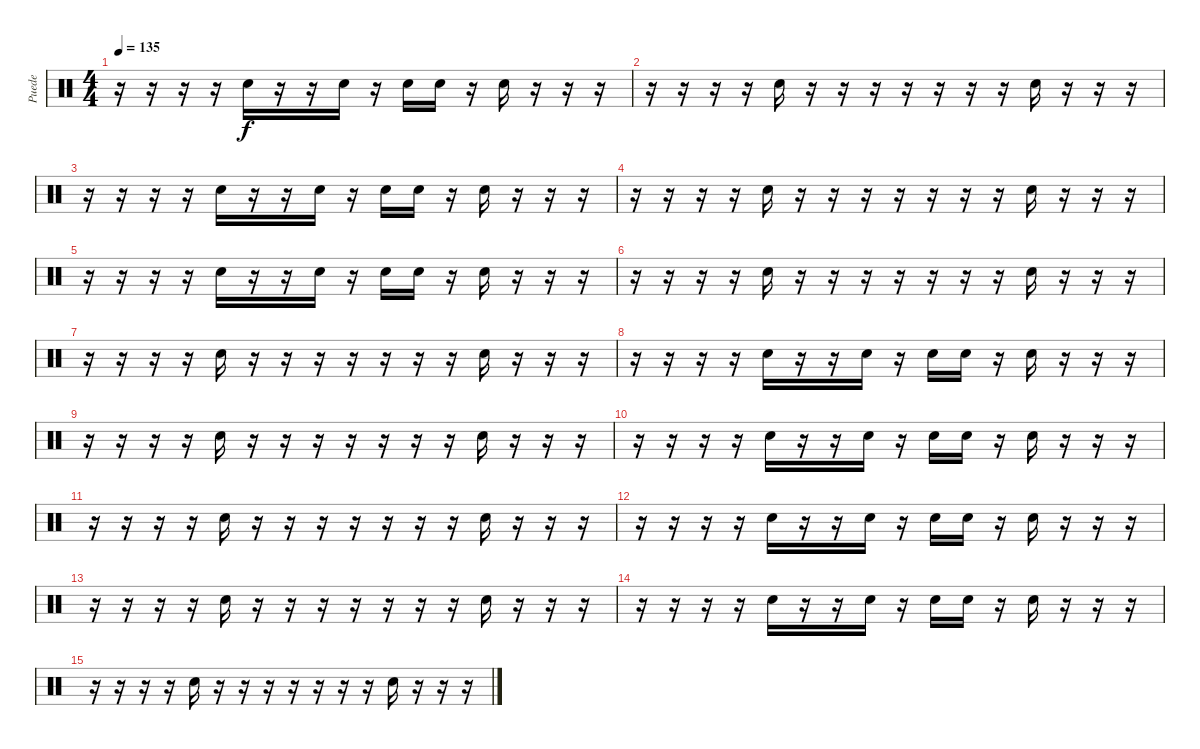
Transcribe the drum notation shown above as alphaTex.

\track ("Puede" "Puede") {instrument percussion}
\staff {score}
\articulation defaults
\ts (4 4)
\tempo 135
\clef neutral
\ks c
r.16{dy f} r.16 r.16 r.16 "Hand Clap (hit)".16 r.16 r.16 "Hand Clap (hit)".16 r.16 "Hand Clap (hit)".16 "Hand Clap (hit)".16 r.16 "Hand Clap (hit)".16 r.16 r.16 r.16 |
r.16 r.16 r.16 r.16 "Hand Clap (hit)".16 r.16 r.16 r.16 r.16 r.16 r.16 r.16 "Hand Clap (hit)".16 r.16 r.16 r.16 |
r.16 r.16 r.16 r.16 "Hand Clap (hit)".16 r.16 r.16 "Hand Clap (hit)".16 r.16 "Hand Clap (hit)".16 "Hand Clap (hit)".16 r.16 "Hand Clap (hit)".16 r.16 r.16 r.16 |
r.16 r.16 r.16 r.16 "Hand Clap (hit)".16 r.16 r.16 r.16 r.16 r.16 r.16 r.16 "Hand Clap (hit)".16 r.16 r.16 r.16 |
r.16 r.16 r.16 r.16 "Hand Clap (hit)".16 r.16 r.16 "Hand Clap (hit)".16 r.16 "Hand Clap (hit)".16 "Hand Clap (hit)".16 r.16 "Hand Clap (hit)".16 r.16 r.16 r.16 |
r.16 r.16 r.16 r.16 "Hand Clap (hit)".16 r.16 r.16 r.16 r.16 r.16 r.16 r.16 "Hand Clap (hit)".16 r.16 r.16 r.16 |
r.16 r.16 r.16 r.16 "Hand Clap (hit)".16 r.16 r.16 r.16 r.16 r.16 r.16 r.16 "Hand Clap (hit)".16 r.16 r.16 r.16 |
r.16 r.16 r.16 r.16 "Hand Clap (hit)".16 r.16 r.16 "Hand Clap (hit)".16 r.16 "Hand Clap (hit)".16 "Hand Clap (hit)".16 r.16 "Hand Clap (hit)".16 r.16 r.16 r.16 |
r.16 r.16 r.16 r.16 "Hand Clap (hit)".16 r.16 r.16 r.16 r.16 r.16 r.16 r.16 "Hand Clap (hit)".16 r.16 r.16 r.16 |
r.16 r.16 r.16 r.16 "Hand Clap (hit)".16 r.16 r.16 "Hand Clap (hit)".16 r.16 "Hand Clap (hit)".16 "Hand Clap (hit)".16 r.16 "Hand Clap (hit)".16 r.16 r.16 r.16 |
r.16 r.16 r.16 r.16 "Hand Clap (hit)".16 r.16 r.16 r.16 r.16 r.16 r.16 r.16 "Hand Clap (hit)".16 r.16 r.16 r.16 |
r.16 r.16 r.16 r.16 "Hand Clap (hit)".16 r.16 r.16 "Hand Clap (hit)".16 r.16 "Hand Clap (hit)".16 "Hand Clap (hit)".16 r.16 "Hand Clap (hit)".16 r.16 r.16 r.16 |
r.16 r.16 r.16 r.16 "Hand Clap (hit)".16 r.16 r.16 r.16 r.16 r.16 r.16 r.16 "Hand Clap (hit)".16 r.16 r.16 r.16 |
r.16 r.16 r.16 r.16 "Hand Clap (hit)".16 r.16 r.16 "Hand Clap (hit)".16 r.16 "Hand Clap (hit)".16 "Hand Clap (hit)".16 r.16 "Hand Clap (hit)".16 r.16 r.16 r.16 |
r.16 r.16 r.16 r.16 "Hand Clap (hit)".16 r.16 r.16 r.16 r.16 r.16 r.16 r.16 "Hand Clap (hit)".16 r.16 r.16 r.16
